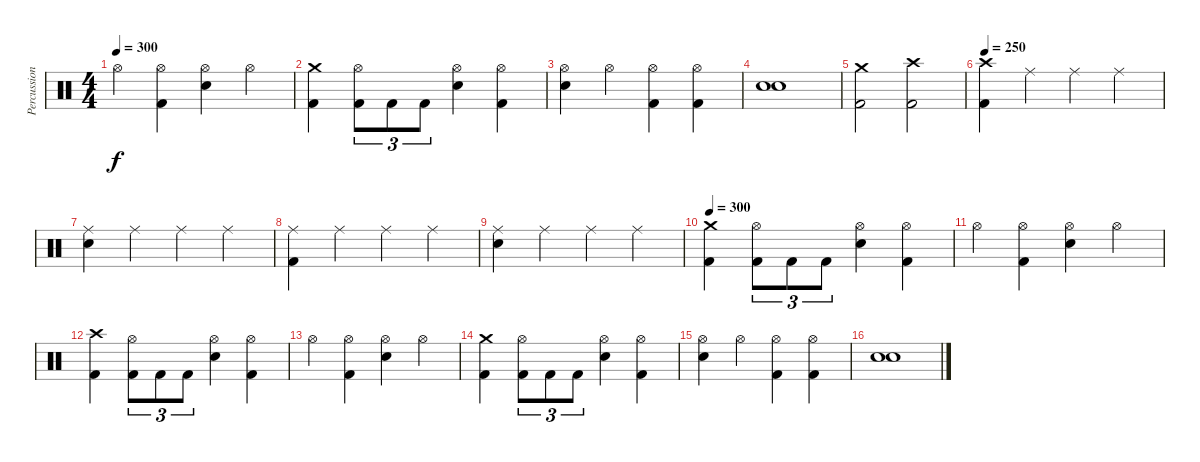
\track ("Percussion" "Percussion") {instrument percussion}
\staff {score}
\articulation defaults
\ts (4 4)
\tempo 300
\clef neutral
\ks c "Hi-Hat (open)".4{dy f}
("Hi-Hat (open)" "Kick (hit) 2").4 ("Hi-Hat (open)" "Snare (hit) 2").4 "Hi-Hat (open)".4 |
("Crash medium (hit)" "Kick (hit) 2").4 ("Hi-Hat (open)" "Kick (hit) 2").8{tu (3 2)} "Kick (hit) 2".8{tu (3 2)} "Kick (hit) 2".8{tu (3 2)} ("Hi-Hat (open)" "Snare (hit) 2").4 ("Hi-Hat (open)" "Kick (hit) 2").4 |
("Hi-Hat (open)" "Snare (hit) 2").4 "Hi-Hat (open)".4 ("Hi-Hat (open)" "Kick (hit) 2").4 ("Hi-Hat (open)" "Kick (hit) 2").4 |
("Snare (hit) 2" "Snare (hit) 2").1 |
("Crash medium (hit)" "Kick (hit) 2").2 ("Crash high (hit)" "Kick (hit) 2").2 |
\tempo 250
("Crash high (hit)" "Kick (hit) 2").4 "Ride (middle)".4 "Ride (middle)".4 "Ride (middle)".4 |
("Ride (middle)" "Snare (hit) 2").4 "Ride (middle)".4 "Ride (middle)".4 "Ride (middle)".4 |
("Ride (middle)" "Kick (hit) 2").4 "Ride (middle)".4 "Ride (middle)".4 "Ride (middle)".4 |
("Ride (middle)" "Snare (hit) 2").4 "Ride (middle)".4 "Ride (middle)".4 "Ride (middle)".4 |
\tempo 300
("Crash medium (hit)" "Kick (hit) 2").4 ("Hi-Hat (open)" "Kick (hit) 2").8{tu (3 2)} "Kick (hit) 2".8{tu (3 2)} "Kick (hit) 2".8{tu (3 2)} ("Hi-Hat (open)" "Snare (hit) 2").4 ("Hi-Hat (open)" "Kick (hit) 2").4 |
"Hi-Hat (open)".4 ("Hi-Hat (open)" "Kick (hit) 2").4 ("Hi-Hat (open)" "Snare (hit) 2").4 "Hi-Hat (open)".4 |
("Crash high (hit)" "Kick (hit) 2").4 ("Hi-Hat (open)" "Kick (hit) 2").8{tu (3 2)} "Kick (hit) 2".8{tu (3 2)} "Kick (hit) 2".8{tu (3 2)} ("Hi-Hat (open)" "Snare (hit) 2").4 ("Hi-Hat (open)" "Kick (hit) 2").4 |
"Hi-Hat (open)".4 ("Hi-Hat (open)" "Kick (hit) 2").4 ("Hi-Hat (open)" "Snare (hit) 2").4 "Hi-Hat (open)".4 |
("Crash medium (hit)" "Kick (hit) 2").4 ("Hi-Hat (open)" "Kick (hit) 2").8{tu (3 2)} "Kick (hit) 2".8{tu (3 2)} "Kick (hit) 2".8{tu (3 2)} ("Hi-Hat (open)" "Snare (hit) 2").4 ("Hi-Hat (open)" "Kick (hit) 2").4 |
("Hi-Hat (open)" "Snare (hit) 2").4 "Hi-Hat (open)".4 ("Hi-Hat (open)" "Kick (hit) 2").4 ("Hi-Hat (open)" "Kick (hit) 2").4 |
("Snare (hit) 2" "Snare (hit) 2").1
